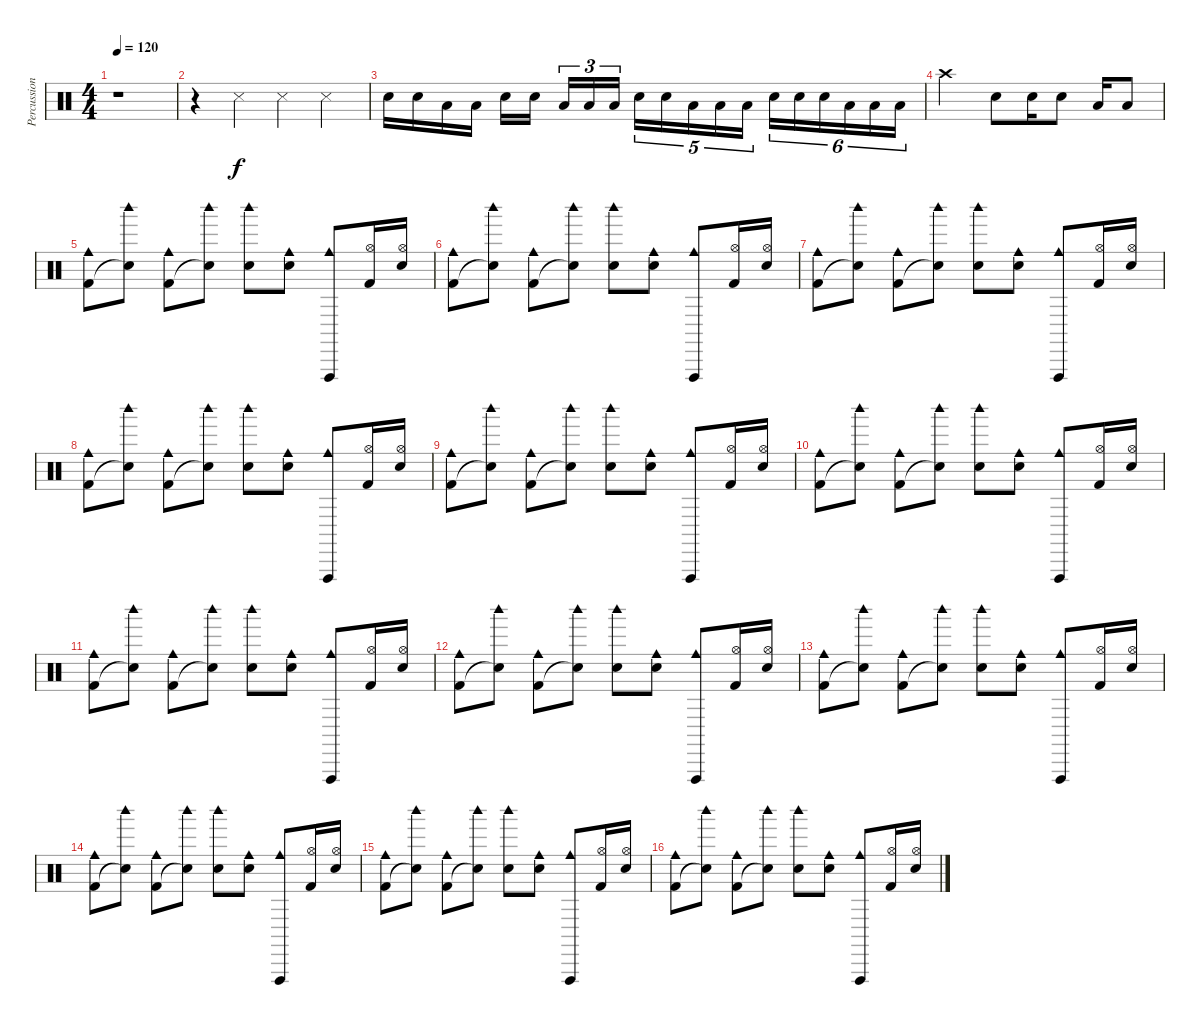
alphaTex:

\track ("Percussion" "Percussion") {instrument percussion}
\staff {score}
\articulation defaults
\ts (4 4)
\tempo 120
\clef neutral
\ks c
r.1{dy f} |
r.4 "Snare (side stick) 3".4 "Snare (side stick) 3".4 "Snare (side stick) 3".4 |
"Snare (hit) 2".16 "Snare (hit) 2".16 "Low Tom (hit)".16 "Low Tom (hit)".16 "Snare (hit) 2".16 "Snare (hit) 2".16 "Low Tom (hit)".16{tu (3 2)} "Low Tom (hit)".16{tu (3 2)} "Low Tom (hit)".16{tu (3 2)} "Snare (hit) 2".16{tu (5 4)} "Snare (hit) 2".16{tu (5 4)} "Low Tom (hit)".16{tu (5 4)} "Low Tom (hit)".16{tu (5 4)} "Low Tom (hit)".16{tu (5 4)} "Snare (hit) 2".16{tu (6 4)} "Snare (hit) 2".16{tu (6 4)} "Snare (hit) 2".16{tu (6 4)} "Low Tom (hit)".16{tu (6 4)} "Low Tom (hit)".16{tu (6 4)} "Low Tom (hit)".16{tu (6 4)} |
"Crash high (hit)".2 "Snare (hit) 2".8 "Snare (hit) 2".16 "Snare (hit) 2".8 "Low Tom (hit)".16 "Low Tom (hit)".8 |
("Cowbell medium (hit)" "Kick (hit) 2").8 ("Woodblock high (hit)" "Snare (hit)"{t}).8 ("Cowbell medium (hit)" "Kick (hit) 2").8 ("Woodblock high (hit)" "Snare (hit)"{t}).8 ("Woodblock high (hit)" "Snare (hit) 2").8 ("Cowbell medium (hit)" "Snare (hit) 2").8 ("Cowbell medium (hit)" "Vibraslap (hit)").8 ("Hi-Hat (open)" "Kick (hit) 2").16 ("Hi-Hat (open)" "Snare (hit) 2").16 |
("Cowbell medium (hit)" "Kick (hit) 2").8 ("Woodblock high (hit)" "Snare (hit)"{t}).8 ("Cowbell medium (hit)" "Kick (hit) 2").8 ("Woodblock high (hit)" "Snare (hit)"{t}).8 ("Woodblock high (hit)" "Snare (hit) 2").8 ("Cowbell medium (hit)" "Snare (hit) 2").8 ("Cowbell medium (hit)" "Vibraslap (hit)").8 ("Hi-Hat (open)" "Kick (hit) 2").16 ("Hi-Hat (open)" "Snare (hit) 2").16 |
("Cowbell medium (hit)" "Kick (hit) 2").8 ("Woodblock high (hit)" "Snare (hit)"{t}).8 ("Cowbell medium (hit)" "Kick (hit) 2").8 ("Woodblock high (hit)" "Snare (hit)"{t}).8 ("Woodblock high (hit)" "Snare (hit) 2").8 ("Cowbell medium (hit)" "Snare (hit) 2").8 ("Cowbell medium (hit)" "Vibraslap (hit)").8 ("Hi-Hat (open)" "Kick (hit) 2").16 ("Hi-Hat (open)" "Snare (hit) 2").16 |
("Cowbell medium (hit)" "Kick (hit) 2").8 ("Woodblock high (hit)" "Snare (hit)"{t}).8 ("Cowbell medium (hit)" "Kick (hit) 2").8 ("Woodblock high (hit)" "Snare (hit)"{t}).8 ("Woodblock high (hit)" "Snare (hit) 2").8 ("Cowbell medium (hit)" "Snare (hit) 2").8 ("Cowbell medium (hit)" "Vibraslap (hit)").8 ("Hi-Hat (open)" "Kick (hit) 2").16 ("Hi-Hat (open)" "Snare (hit) 2").16 |
("Cowbell medium (hit)" "Kick (hit) 2").8 ("Woodblock high (hit)" "Snare (hit)"{t}).8 ("Cowbell medium (hit)" "Kick (hit) 2").8 ("Woodblock high (hit)" "Snare (hit)"{t}).8 ("Woodblock high (hit)" "Snare (hit) 2").8 ("Cowbell medium (hit)" "Snare (hit) 2").8 ("Cowbell medium (hit)" "Vibraslap (hit)").8 ("Hi-Hat (open)" "Kick (hit) 2").16 ("Hi-Hat (open)" "Snare (hit) 2").16 |
("Cowbell medium (hit)" "Kick (hit) 2").8 ("Woodblock high (hit)" "Snare (hit)"{t}).8 ("Cowbell medium (hit)" "Kick (hit) 2").8 ("Woodblock high (hit)" "Snare (hit)"{t}).8 ("Woodblock high (hit)" "Snare (hit) 2").8 ("Cowbell medium (hit)" "Snare (hit) 2").8 ("Cowbell medium (hit)" "Vibraslap (hit)").8 ("Hi-Hat (open)" "Kick (hit) 2").16 ("Hi-Hat (open)" "Snare (hit) 2").16 |
("Cowbell medium (hit)" "Kick (hit) 2").8 ("Woodblock high (hit)" "Snare (hit)"{t}).8 ("Cowbell medium (hit)" "Kick (hit) 2").8 ("Woodblock high (hit)" "Snare (hit)"{t}).8 ("Woodblock high (hit)" "Snare (hit) 2").8 ("Cowbell medium (hit)" "Snare (hit) 2").8 ("Cowbell medium (hit)" "Vibraslap (hit)").8 ("Hi-Hat (open)" "Kick (hit) 2").16 ("Hi-Hat (open)" "Snare (hit) 2").16 |
("Cowbell medium (hit)" "Kick (hit) 2").8 ("Woodblock high (hit)" "Snare (hit)"{t}).8 ("Cowbell medium (hit)" "Kick (hit) 2").8 ("Woodblock high (hit)" "Snare (hit)"{t}).8 ("Woodblock high (hit)" "Snare (hit) 2").8 ("Cowbell medium (hit)" "Snare (hit) 2").8 ("Cowbell medium (hit)" "Vibraslap (hit)").8 ("Hi-Hat (open)" "Kick (hit) 2").16 ("Hi-Hat (open)" "Snare (hit) 2").16 |
("Cowbell medium (hit)" "Kick (hit) 2").8 ("Woodblock high (hit)" "Snare (hit)"{t}).8 ("Cowbell medium (hit)" "Kick (hit) 2").8 ("Woodblock high (hit)" "Snare (hit)"{t}).8 ("Woodblock high (hit)" "Snare (hit) 2").8 ("Cowbell medium (hit)" "Snare (hit) 2").8 ("Cowbell medium (hit)" "Vibraslap (hit)").8 ("Hi-Hat (open)" "Kick (hit) 2").16 ("Hi-Hat (open)" "Snare (hit) 2").16 |
("Cowbell medium (hit)" "Kick (hit) 2").8 ("Woodblock high (hit)" "Snare (hit)"{t}).8 ("Cowbell medium (hit)" "Kick (hit) 2").8 ("Woodblock high (hit)" "Snare (hit)"{t}).8 ("Woodblock high (hit)" "Snare (hit) 2").8 ("Cowbell medium (hit)" "Snare (hit) 2").8 ("Cowbell medium (hit)" "Vibraslap (hit)").8 ("Hi-Hat (open)" "Kick (hit) 2").16 ("Hi-Hat (open)" "Snare (hit) 2").16 |
("Cowbell medium (hit)" "Kick (hit) 2").8 ("Woodblock high (hit)" "Snare (hit)"{t}).8 ("Cowbell medium (hit)" "Kick (hit) 2").8 ("Woodblock high (hit)" "Snare (hit)"{t}).8 ("Woodblock high (hit)" "Snare (hit) 2").8 ("Cowbell medium (hit)" "Snare (hit) 2").8 ("Cowbell medium (hit)" "Vibraslap (hit)").8 ("Hi-Hat (open)" "Kick (hit) 2").16 ("Hi-Hat (open)" "Snare (hit) 2").16 |
("Cowbell medium (hit)" "Kick (hit) 2").8 ("Woodblock high (hit)" "Snare (hit)"{t}).8 ("Cowbell medium (hit)" "Kick (hit) 2").8 ("Woodblock high (hit)" "Snare (hit)"{t}).8 ("Woodblock high (hit)" "Snare (hit) 2").8 ("Cowbell medium (hit)" "Snare (hit) 2").8 ("Cowbell medium (hit)" "Vibraslap (hit)").8 ("Hi-Hat (open)" "Kick (hit) 2").16 ("Hi-Hat (open)" "Snare (hit) 2").16
